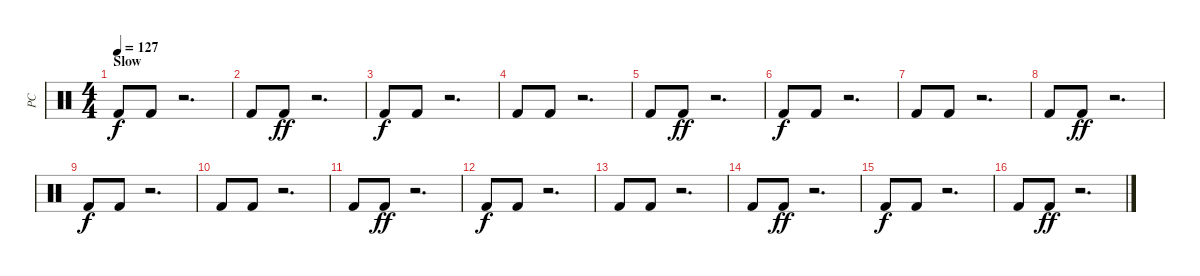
\track ("PC" "PC") {instrument percussion}
\staff {score}
\articulation defaults
\ts (4 4)
\section ("" "Slow")
\tempo 127
\clef neutral
\ks c "Kick (hit) 2".8{dy f} "Kick (hit) 2".8
r.2{d} |
"Kick (hit) 2".8 "Kick (hit) 2".8{dy ff} r.2{d} |
"Kick (hit) 2".8{dy f} "Kick (hit) 2".8 r.2{d} |
"Kick (hit) 2".8 "Kick (hit) 2".8 r.2{d} |
"Kick (hit) 2".8 "Kick (hit) 2".8{dy ff} r.2{d} |
"Kick (hit) 2".8{dy f} "Kick (hit) 2".8 r.2{d} |
"Kick (hit) 2".8 "Kick (hit) 2".8 r.2{d} |
"Kick (hit) 2".8 "Kick (hit) 2".8{dy ff} r.2{d} |
"Kick (hit) 2".8{dy f} "Kick (hit) 2".8 r.2{d} |
"Kick (hit) 2".8 "Kick (hit) 2".8 r.2{d} |
"Kick (hit) 2".8 "Kick (hit) 2".8{dy ff} r.2{d} |
"Kick (hit) 2".8{dy f} "Kick (hit) 2".8 r.2{d} |
"Kick (hit) 2".8 "Kick (hit) 2".8 r.2{d} |
"Kick (hit) 2".8 "Kick (hit) 2".8{dy ff} r.2{d} |
"Kick (hit) 2".8{dy f} "Kick (hit) 2".8 r.2{d} |
"Kick (hit) 2".8 "Kick (hit) 2".8{dy ff} r.2{d}
